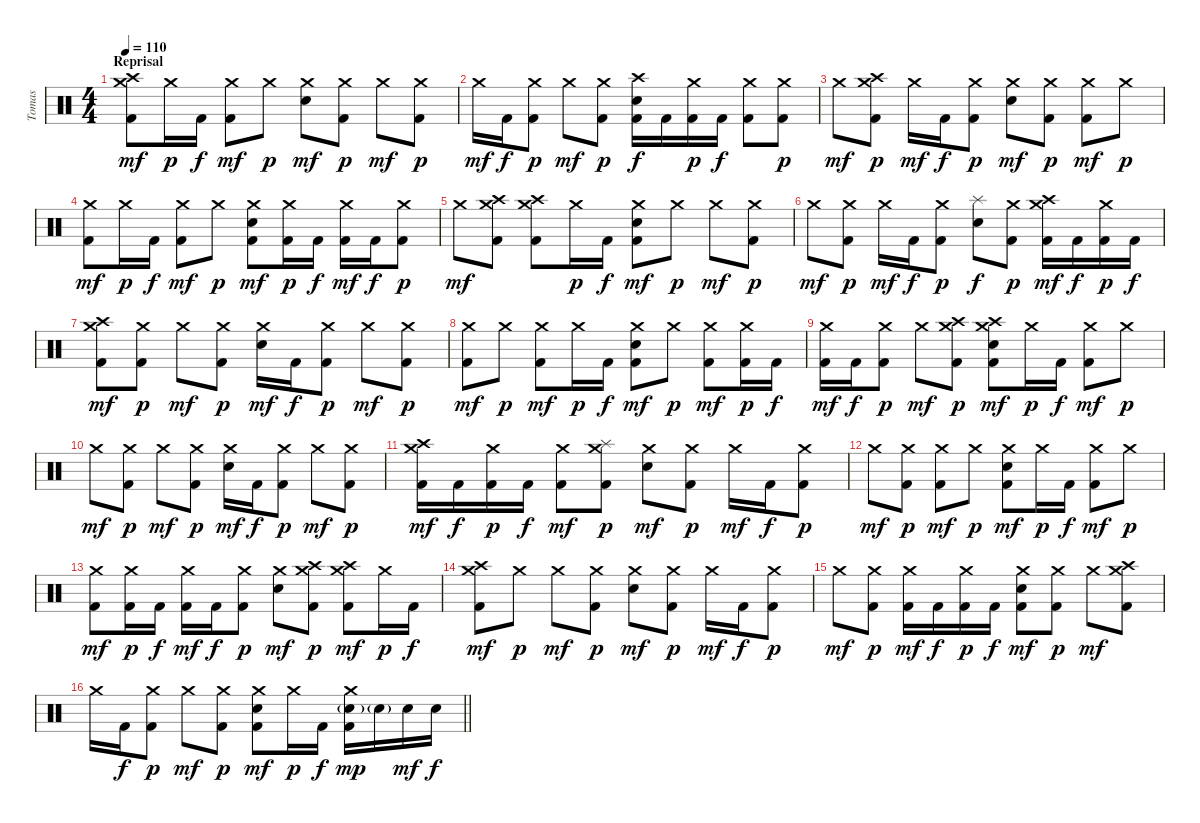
\track ("Tomas" "Tomas") {instrument percussion}
\staff {score}
\articulation defaults
\ts (4 4)
\section ("" "Reprisal")
\tempo 110
\clef neutral
\ks c
("Crash medium (hit)" "Crash high (hit)" "Kick (hit) 2").8{dy mf} "Crash medium (hit)".16{dy p} "Kick (hit) 2".16{dy f} ("Crash medium (hit)" "Kick (hit) 2").8{dy mf} "Crash medium (hit)".8{dy p} ("Crash medium (hit)" "Electric Snare (hit)").8{dy mf} ("Crash medium (hit)" "Kick (hit) 2").8{dy p} "Crash medium (hit)".8{dy mf} ("Crash medium (hit)" "Kick (hit) 2").8{dy p} |
"Crash medium (hit)".16{dy mf} "Kick (hit) 2".16{dy f} ("Crash medium (hit)" "Kick (hit) 2").8{dy p} "Crash medium (hit)".8{dy mf} ("Crash medium (hit)" "Kick (hit) 2").8{dy p} ("Crash high (hit)" "Electric Snare (hit)" "Kick (hit) 2").16{dy f} "Kick (hit) 2".16 ("Crash medium (hit)" "Kick (hit) 2").16{dy p} "Kick (hit) 2".16{dy f} ("Crash medium (hit)" "Kick (hit) 2").8 ("Crash medium (hit)" "Kick (hit) 2").8{dy p} |
"Crash medium (hit)".8{dy mf} ("Crash medium (hit)" "Crash high (hit)" "Kick (hit) 2").8{dy p} "Crash medium (hit)".16{dy mf} "Kick (hit) 2".16{dy f} ("Crash medium (hit)" "Kick (hit) 2").8{dy p} ("Crash medium (hit)" "Electric Snare (hit)").8{dy mf} ("Crash medium (hit)" "Kick (hit) 2").8{dy p} ("Crash medium (hit)" "Kick (hit) 2").8{dy mf} "Crash medium (hit)".8{dy p} |
("Crash medium (hit)" "Kick (hit) 2").8{dy mf} "Crash medium (hit)".16{dy p} "Kick (hit) 2".16{dy f} ("Crash medium (hit)" "Kick (hit) 2").8{dy mf} "Crash medium (hit)".8{dy p} ("Crash medium (hit)" "Electric Snare (hit)" "Kick (hit) 2").8{dy mf} ("Crash medium (hit)" "Kick (hit) 2").16{dy p} "Kick (hit) 2".16{dy f} ("Crash medium (hit)" "Kick (hit) 2").16{dy mf} "Kick (hit) 2".16{dy f} ("Crash medium (hit)" "Kick (hit) 2").8{dy p} |
"Crash medium (hit)".8{dy mf} ("Crash medium (hit)" "Crash high (hit)" "Kick (hit) 2").8 ("Crash medium (hit)" "Crash high (hit)" "Kick (hit) 2").8 "Crash medium (hit)".16{dy p} "Kick (hit) 2".16{dy f} ("Crash medium (hit)" "Electric Snare (hit)" "Kick (hit) 2").8{dy mf} "Crash medium (hit)".8{dy p} "Crash medium (hit)".8{dy mf} ("Crash medium (hit)" "Kick (hit) 2").8{dy p} |
"Crash medium (hit)".8{dy mf} ("Crash medium (hit)" "Kick (hit) 2").8{dy p} "Crash medium (hit)".16{dy mf} "Kick (hit) 2".16{dy f} ("Crash medium (hit)" "Kick (hit) 2").8{dy p} ("Splash (hit)" "Electric Snare (hit)").8{dy f} ("Crash medium (hit)" "Kick (hit) 2").8{dy p} ("Crash medium (hit)" "Crash high (hit)" "Kick (hit) 2").16{dy mf} "Kick (hit) 2".16{dy f} ("Crash medium (hit)" "Kick (hit) 2").16{dy p} "Kick (hit) 2".16{dy f} |
("Crash medium (hit)" "Crash high (hit)" "Kick (hit) 2").8{dy mf} ("Crash medium (hit)" "Kick (hit) 2").8{dy p} "Crash medium (hit)".8{dy mf} ("Crash medium (hit)" "Kick (hit) 2").8{dy p} ("Crash medium (hit)" "Electric Snare (hit)").16{dy mf} "Kick (hit) 2".16{dy f} ("Crash medium (hit)" "Kick (hit) 2").8{dy p} "Crash medium (hit)".8{dy mf} ("Crash medium (hit)" "Kick (hit) 2").8{dy p} |
("Crash medium (hit)" "Kick (hit) 2").8{dy mf} "Crash medium (hit)".8{dy p} ("Crash medium (hit)" "Kick (hit) 2").8{dy mf} "Crash medium (hit)".16{dy p} "Kick (hit) 2".16{dy f} ("Crash medium (hit)" "Electric Snare (hit)" "Kick (hit) 2").8{dy mf} "Crash medium (hit)".8{dy p} ("Crash medium (hit)" "Kick (hit) 2").8{dy mf} ("Crash medium (hit)" "Kick (hit) 2").16{dy p} "Kick (hit) 2".16{dy f} |
("Crash medium (hit)" "Kick (hit) 2").16{dy mf} "Kick (hit) 2".16{dy f} ("Crash medium (hit)" "Kick (hit) 2").8{dy p} "Crash medium (hit)".8{dy mf} ("Crash medium (hit)" "Crash high (hit)" "Kick (hit) 2").8{dy p} ("Crash medium (hit)" "Crash high (hit)" "Electric Snare (hit)" "Kick (hit) 2").8{dy mf} "Crash medium (hit)".16{dy p} "Kick (hit) 2".16{dy f} ("Crash medium (hit)" "Kick (hit) 2").8{dy mf} "Crash medium (hit)".8{dy p} |
"Crash medium (hit)".8{dy mf} ("Crash medium (hit)" "Kick (hit) 2").8{dy p} "Crash medium (hit)".8{dy mf} ("Crash medium (hit)" "Kick (hit) 2").8{dy p} ("Crash medium (hit)" "Electric Snare (hit)").16{dy mf} "Kick (hit) 2".16{dy f} ("Crash medium (hit)" "Kick (hit) 2").8{dy p} "Crash medium (hit)".8{dy mf} ("Crash medium (hit)" "Kick (hit) 2").8{dy p} |
("Crash medium (hit)" "Crash high (hit)" "Kick (hit) 2").16{dy mf} "Kick (hit) 2".16{dy f} ("Crash medium (hit)" "Kick (hit) 2").16{dy p} "Kick (hit) 2".16{dy f} ("Crash medium (hit)" "Kick (hit) 2").8{dy mf} ("Crash medium (hit)" "Splash (hit)" "Kick (hit) 2").8{dy p} ("Crash medium (hit)" "Electric Snare (hit)").8{dy mf} ("Crash medium (hit)" "Kick (hit) 2").8{dy p} "Crash medium (hit)".16{dy mf} "Kick (hit) 2".16{dy f} ("Crash medium (hit)" "Kick (hit) 2").8{dy p} |
"Crash medium (hit)".8{dy mf} ("Crash medium (hit)" "Kick (hit) 2").8{dy p} ("Crash medium (hit)" "Kick (hit) 2").8{dy mf} "Crash medium (hit)".8{dy p} ("Crash medium (hit)" "Electric Snare (hit)" "Kick (hit) 2").8{dy mf} "Crash medium (hit)".16{dy p} "Kick (hit) 2".16{dy f} ("Crash medium (hit)" "Kick (hit) 2").8{dy mf} "Crash medium (hit)".8{dy p} |
("Crash medium (hit)" "Kick (hit) 2").8{dy mf} ("Crash medium (hit)" "Kick (hit) 2").16{dy p} "Kick (hit) 2".16{dy f} ("Crash medium (hit)" "Kick (hit) 2").16{dy mf} "Kick (hit) 2".16{dy f} ("Crash medium (hit)" "Kick (hit) 2").8{dy p} ("Crash medium (hit)" "Electric Snare (hit)").8{dy mf} ("Crash medium (hit)" "Crash high (hit)" "Kick (hit) 2").8{dy p} ("Crash medium (hit)" "Crash high (hit)" "Kick (hit) 2").8{dy mf} "Crash medium (hit)".16{dy p} "Kick (hit) 2".16{dy f} |
("Crash medium (hit)" "Crash high (hit)" "Kick (hit) 2").8{dy mf} "Crash medium (hit)".8{dy p} "Crash medium (hit)".8{dy mf} ("Crash medium (hit)" "Kick (hit) 2").8{dy p} ("Crash medium (hit)" "Electric Snare (hit)").8{dy mf} ("Crash medium (hit)" "Kick (hit) 2").8{dy p} "Crash medium (hit)".16{dy mf} "Kick (hit) 2".16{dy f} ("Crash medium (hit)" "Kick (hit) 2").8{dy p} |
"Crash medium (hit)".8{dy mf} ("Crash medium (hit)" "Kick (hit) 2").8{dy p} ("Crash medium (hit)" "Kick (hit) 2").16{dy mf} "Kick (hit) 2".16{dy f} ("Crash medium (hit)" "Kick (hit) 2").16{dy p} "Kick (hit) 2".16{dy f} ("Crash medium (hit)" "Electric Snare (hit)" "Kick (hit) 2").8{dy mf} ("Crash medium (hit)" "Kick (hit) 2").8{dy p} "Crash medium (hit)".8{dy mf} ("Crash medium (hit)" "Crash high (hit)" "Kick (hit) 2").8 |
\barLineRight lightlight "Crash medium (hit)".16 "Kick (hit) 2".16{dy f}
("Crash medium (hit)" "Kick (hit) 2").8{dy p} "Crash medium (hit)".8{dy mf} ("Crash medium (hit)" "Kick (hit) 2").8{dy p} ("Crash medium (hit)" "Electric Snare (hit)" "Kick (hit) 2").8{dy mf} "Crash medium (hit)".16{dy p} "Kick (hit) 2".16{dy f} ("Crash medium (hit)" "Electric Snare (hit)"{g} "Kick (hit) 2").16{dy mp} "Electric Snare (hit)"{g}.16 "Electric Snare (hit)".16{dy mf} "Electric Snare (hit)".16{dy f}
